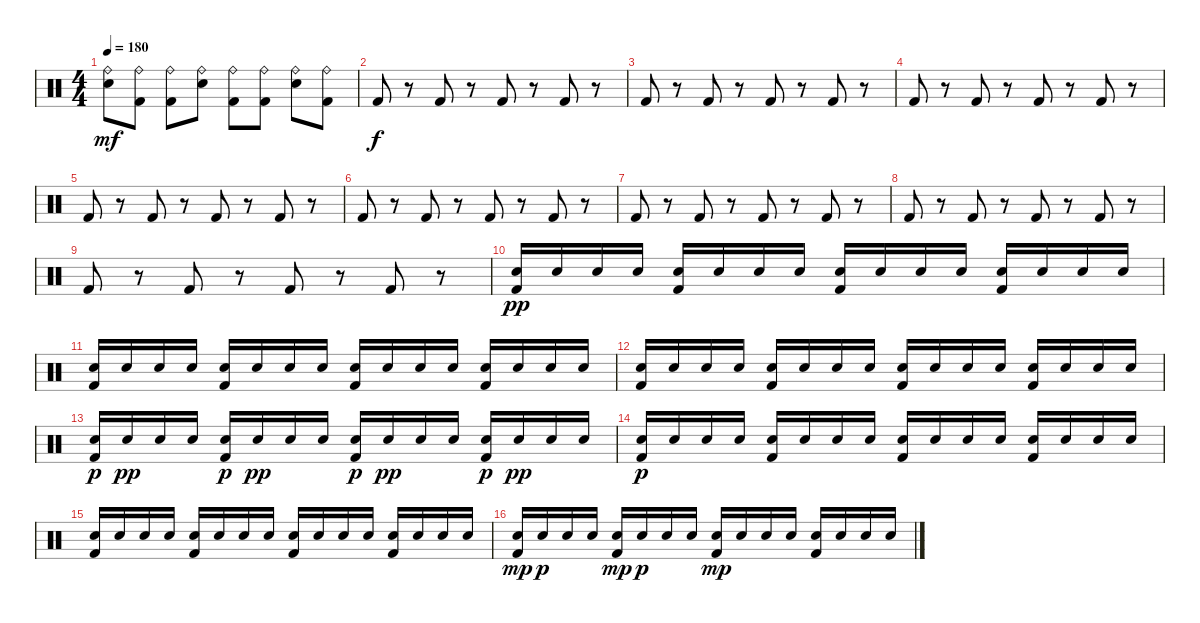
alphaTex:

\track "" {instrument percussion}
\staff {score}
\articulation defaults
\ts (4 4)
\tempo 180
\clef neutral
\ks c
("Ride (bell)" "Snare (hit) 2").8{dy mf} ("Ride (bell)" "Kick (hit) 2").8 ("Ride (bell)" "Kick (hit) 2").8 ("Ride (bell)" "Snare (hit) 2").8 ("Ride (bell)" "Kick (hit) 2").8 ("Ride (bell)" "Kick (hit) 2").8 ("Ride (bell)" "Snare (hit) 2").8 ("Ride (bell)" "Kick (hit) 2").8 |
"Kick (hit) 2".8{dy f} r.8 "Kick (hit) 2".8 r.8 "Kick (hit) 2".8 r.8 "Kick (hit) 2".8 r.8 |
"Kick (hit) 2".8 r.8 "Kick (hit) 2".8 r.8 "Kick (hit) 2".8 r.8 "Kick (hit) 2".8 r.8 |
"Kick (hit) 2".8 r.8 "Kick (hit) 2".8 r.8 "Kick (hit) 2".8 r.8 "Kick (hit) 2".8 r.8 |
"Kick (hit) 2".8 r.8 "Kick (hit) 2".8 r.8 "Kick (hit) 2".8 r.8 "Kick (hit) 2".8 r.8 |
"Kick (hit) 2".8 r.8 "Kick (hit) 2".8 r.8 "Kick (hit) 2".8 r.8 "Kick (hit) 2".8 r.8 |
"Kick (hit) 2".8 r.8 "Kick (hit) 2".8 r.8 "Kick (hit) 2".8 r.8 "Kick (hit) 2".8 r.8 |
"Kick (hit) 2".8 r.8 "Kick (hit) 2".8 r.8 "Kick (hit) 2".8 r.8 "Kick (hit) 2".8 r.8 |
"Kick (hit) 2".8 r.8 "Kick (hit) 2".8 r.8 "Kick (hit) 2".8 r.8 "Kick (hit) 2".8 r.8 |
("Snare (hit) 2" "Kick (hit) 2").16{dy pp} "Snare (hit) 2".16 "Snare (hit) 2".16 "Snare (hit) 2".16 ("Snare (hit) 2" "Kick (hit) 2").16 "Snare (hit) 2".16 "Snare (hit) 2".16 "Snare (hit) 2".16 ("Snare (hit) 2" "Kick (hit) 2").16 "Snare (hit) 2".16 "Snare (hit) 2".16 "Snare (hit) 2".16 ("Snare (hit) 2" "Kick (hit) 2").16 "Snare (hit) 2".16 "Snare (hit) 2".16 "Snare (hit) 2".16 |
("Kick (hit) 2" "Snare (hit) 2").16 "Snare (hit) 2".16 "Snare (hit) 2".16 "Snare (hit) 2".16 ("Kick (hit) 2" "Snare (hit) 2").16 "Snare (hit) 2".16 "Snare (hit) 2".16 "Snare (hit) 2".16 ("Kick (hit) 2" "Snare (hit) 2").16 "Snare (hit) 2".16 "Snare (hit) 2".16 "Snare (hit) 2".16 ("Kick (hit) 2" "Snare (hit) 2").16 "Snare (hit) 2".16 "Snare (hit) 2".16 "Snare (hit) 2".16 |
("Kick (hit) 2" "Snare (hit) 2").16 "Snare (hit) 2".16 "Snare (hit) 2".16 "Snare (hit) 2".16 ("Kick (hit) 2" "Snare (hit) 2").16 "Snare (hit) 2".16 "Snare (hit) 2".16 "Snare (hit) 2".16 ("Kick (hit) 2" "Snare (hit) 2").16 "Snare (hit) 2".16 "Snare (hit) 2".16 "Snare (hit) 2".16 ("Kick (hit) 2" "Snare (hit) 2").16 "Snare (hit) 2".16 "Snare (hit) 2".16 "Snare (hit) 2".16 |
("Kick (hit) 2" "Snare (hit) 2").16{dy p} "Snare (hit) 2".16{dy pp} "Snare (hit) 2".16 "Snare (hit) 2".16 ("Kick (hit) 2" "Snare (hit) 2").16{dy p} "Snare (hit) 2".16{dy pp} "Snare (hit) 2".16 "Snare (hit) 2".16 ("Kick (hit) 2" "Snare (hit) 2").16{dy p} "Snare (hit) 2".16{dy pp} "Snare (hit) 2".16 "Snare (hit) 2".16 ("Kick (hit) 2" "Snare (hit) 2").16{dy p} "Snare (hit) 2".16{dy pp} "Snare (hit) 2".16 "Snare (hit) 2".16 |
("Kick (hit) 2" "Snare (hit) 2").16{dy p} "Snare (hit) 2".16 "Snare (hit) 2".16 "Snare (hit) 2".16 ("Kick (hit) 2" "Snare (hit) 2").16 "Snare (hit) 2".16 "Snare (hit) 2".16 "Snare (hit) 2".16 ("Kick (hit) 2" "Snare (hit) 2").16 "Snare (hit) 2".16 "Snare (hit) 2".16 "Snare (hit) 2".16 ("Kick (hit) 2" "Snare (hit) 2").16 "Snare (hit) 2".16 "Snare (hit) 2".16 "Snare (hit) 2".16 |
("Kick (hit) 2" "Snare (hit) 2").16 "Snare (hit) 2".16 "Snare (hit) 2".16 "Snare (hit) 2".16 ("Kick (hit) 2" "Snare (hit) 2").16 "Snare (hit) 2".16 "Snare (hit) 2".16 "Snare (hit) 2".16 ("Kick (hit) 2" "Snare (hit) 2").16 "Snare (hit) 2".16 "Snare (hit) 2".16 "Snare (hit) 2".16 ("Kick (hit) 2" "Snare (hit) 2").16 "Snare (hit) 2".16 "Snare (hit) 2".16 "Snare (hit) 2".16 |
("Kick (hit) 2" "Snare (hit) 2").16{dy mp} "Snare (hit) 2".16{dy p} "Snare (hit) 2".16 "Snare (hit) 2".16 ("Kick (hit) 2" "Snare (hit) 2").16{dy mp} "Snare (hit) 2".16{dy p} "Snare (hit) 2".16 "Snare (hit) 2".16 ("Kick (hit) 2" "Snare (hit) 2").16{dy mp} "Snare (hit) 2".16 "Snare (hit) 2".16 "Snare (hit) 2".16 ("Kick (hit) 2" "Snare (hit) 2").16 "Snare (hit) 2".16 "Snare (hit) 2".16 "Snare (hit) 2".16
